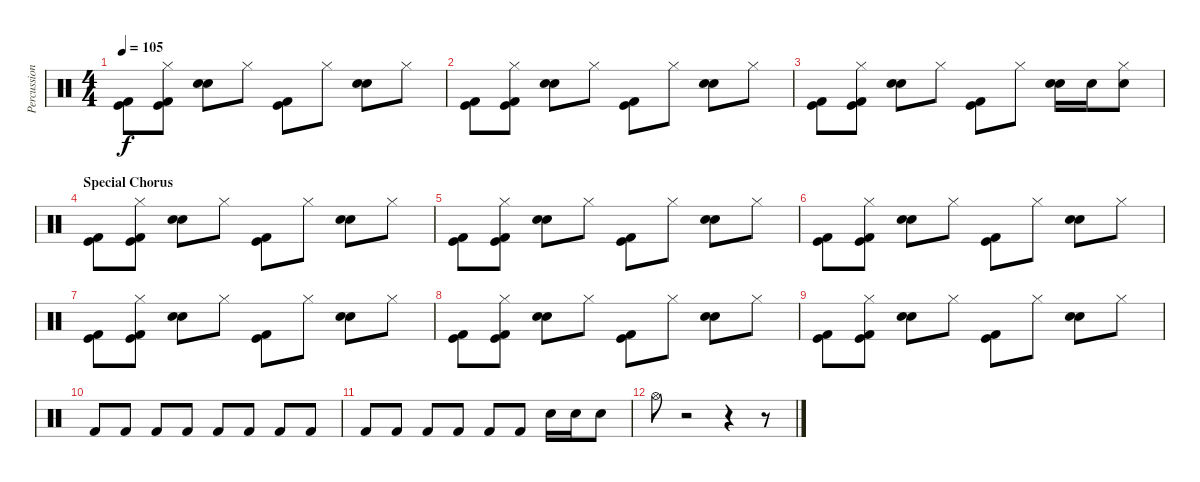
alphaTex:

\track ("Percussion" "Percussion") {instrument percussion}
\staff {score}
\articulation defaults
\ts (4 4)
\tempo 105
\clef neutral
\ks c
("Kick (hit) 2" "Kick (hit)").8{dy f} ("Hi-Hat (closed)" "Kick (hit) 2" "Kick (hit)").8 ("Hand Clap (hit)" "Electric Snare (hit)").8 "Hi-Hat (closed)".8 ("Kick (hit) 2" "Kick (hit)").8 "Hi-Hat (closed)".8 ("Hand Clap (hit)" "Electric Snare (hit)").8 "Hi-Hat (closed)".8 |
("Kick (hit) 2" "Kick (hit)").8 ("Hi-Hat (closed)" "Kick (hit) 2" "Kick (hit)").8 ("Hand Clap (hit)" "Electric Snare (hit)").8 "Hi-Hat (closed)".8 ("Kick (hit) 2" "Kick (hit)").8 "Hi-Hat (closed)".8 ("Hand Clap (hit)" "Electric Snare (hit)").8 "Hi-Hat (closed)".8 |
("Kick (hit) 2" "Kick (hit)").8 ("Hi-Hat (closed)" "Kick (hit) 2" "Kick (hit)").8 ("Hand Clap (hit)" "Electric Snare (hit)").8 "Hi-Hat (closed)".8 ("Kick (hit) 2" "Kick (hit)").8 "Hi-Hat (closed)".8 ("Snare (hit) 2" "Hand Clap (hit)").16 "Snare (hit) 2".16 ("Hi-Hat (closed)" "Snare (hit) 2").8 |
\section ("" "Special Chorus")
("Kick (hit) 2" "Kick (hit)").8 ("Hi-Hat (closed)" "Kick (hit) 2" "Kick (hit)").8 ("Hand Clap (hit)" "Electric Snare (hit)").8 "Hi-Hat (closed)".8 ("Kick (hit) 2" "Kick (hit)").8 "Hi-Hat (closed)".8 ("Hand Clap (hit)" "Electric Snare (hit)").8 "Hi-Hat (closed)".8 |
("Kick (hit) 2" "Kick (hit)").8 ("Hi-Hat (closed)" "Kick (hit) 2" "Kick (hit)").8 ("Hand Clap (hit)" "Electric Snare (hit)").8 "Hi-Hat (closed)".8 ("Kick (hit) 2" "Kick (hit)").8 "Hi-Hat (closed)".8 ("Hand Clap (hit)" "Electric Snare (hit)").8 "Hi-Hat (closed)".8 |
("Kick (hit) 2" "Kick (hit)").8 ("Hi-Hat (closed)" "Kick (hit) 2" "Kick (hit)").8 ("Hand Clap (hit)" "Electric Snare (hit)").8 "Hi-Hat (closed)".8 ("Kick (hit) 2" "Kick (hit)").8 "Hi-Hat (closed)".8 ("Hand Clap (hit)" "Electric Snare (hit)").8 "Hi-Hat (closed)".8 |
("Kick (hit) 2" "Kick (hit)").8 ("Hi-Hat (closed)" "Kick (hit) 2" "Kick (hit)").8 ("Hand Clap (hit)" "Electric Snare (hit)").8 "Hi-Hat (closed)".8 ("Kick (hit) 2" "Kick (hit)").8 "Hi-Hat (closed)".8 ("Hand Clap (hit)" "Electric Snare (hit)").8 "Hi-Hat (closed)".8 |
("Kick (hit) 2" "Kick (hit)").8 ("Hi-Hat (closed)" "Kick (hit) 2" "Kick (hit)").8 ("Hand Clap (hit)" "Electric Snare (hit)").8 "Hi-Hat (closed)".8 ("Kick (hit) 2" "Kick (hit)").8 "Hi-Hat (closed)".8 ("Hand Clap (hit)" "Electric Snare (hit)").8 "Hi-Hat (closed)".8 |
("Kick (hit) 2" "Kick (hit)").8 ("Hi-Hat (closed)" "Kick (hit) 2" "Kick (hit)").8 ("Hand Clap (hit)" "Electric Snare (hit)").8 "Hi-Hat (closed)".8 ("Kick (hit) 2" "Kick (hit)").8 "Hi-Hat (closed)".8 ("Hand Clap (hit)" "Electric Snare (hit)").8 "Hi-Hat (closed)".8 |
"Kick (hit) 2".8{volume 15} "Kick (hit) 2".8 "Kick (hit) 2".8 "Kick (hit) 2".8 "Kick (hit) 2".8 "Kick (hit) 2".8 "Kick (hit) 2".8 "Kick (hit) 2".8 |
"Kick (hit) 2".8 "Kick (hit) 2".8 "Kick (hit) 2".8 "Kick (hit) 2".8 "Kick (hit) 2".8 "Kick (hit) 2".8 "Snare (hit) 2".16 "Snare (hit) 2".16 "Snare (hit) 2".8 |
"Hi-Hat (open)".8 r.2 r.4 r.8
